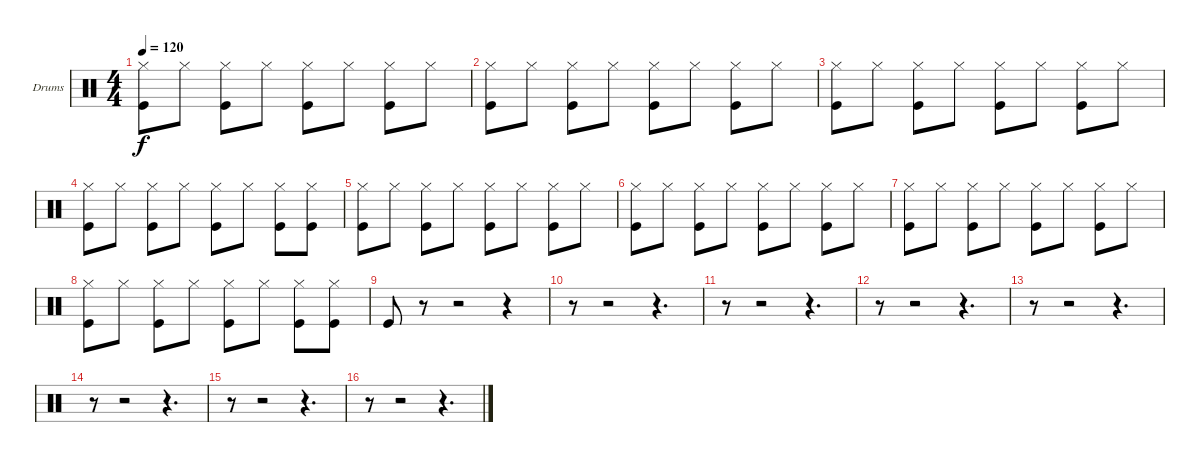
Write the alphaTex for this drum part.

\bracketExtendMode groupsimilarinstruments
\firstSystemTrackNameOrientation horizontal
\otherSystemsTrackNameOrientation horizontal
\track ("Ударные" "Drums") {instrument percussion}
\staff {score}
\articulation defaults
\ts (4 4)
\tempo 120
\clef neutral
\ks c
("Hi-Hat (closed)" "Kick (hit)").8{dy f} "Hi-Hat (closed)".8 ("Hi-Hat (closed)" "Kick (hit)").8 "Hi-Hat (closed)".8 ("Hi-Hat (closed)" "Kick (hit)").8 "Hi-Hat (closed)".8 ("Hi-Hat (closed)" "Kick (hit)").8 "Hi-Hat (closed)".8 |
("Hi-Hat (closed)" "Kick (hit)").8 "Hi-Hat (closed)".8 ("Hi-Hat (closed)" "Kick (hit)").8 "Hi-Hat (closed)".8 ("Hi-Hat (closed)" "Kick (hit)").8 "Hi-Hat (closed)".8 ("Hi-Hat (closed)" "Kick (hit)").8 "Hi-Hat (closed)".8 |
("Hi-Hat (closed)" "Kick (hit)").8 "Hi-Hat (closed)".8 ("Hi-Hat (closed)" "Kick (hit)").8 "Hi-Hat (closed)".8 ("Hi-Hat (closed)" "Kick (hit)").8 "Hi-Hat (closed)".8 ("Hi-Hat (closed)" "Kick (hit)").8 "Hi-Hat (closed)".8 |
("Hi-Hat (closed)" "Kick (hit)").8 "Hi-Hat (closed)".8 ("Hi-Hat (closed)" "Kick (hit)").8 "Hi-Hat (closed)".8 ("Hi-Hat (closed)" "Kick (hit)").8 "Hi-Hat (closed)".8 ("Hi-Hat (closed)" "Kick (hit)").8 ("Hi-Hat (closed)" "Kick (hit)").8 |
("Hi-Hat (closed)" "Kick (hit)").8 "Hi-Hat (closed)".8 ("Hi-Hat (closed)" "Kick (hit)").8 "Hi-Hat (closed)".8 ("Hi-Hat (closed)" "Kick (hit)").8 "Hi-Hat (closed)".8 ("Hi-Hat (closed)" "Kick (hit)").8 "Hi-Hat (closed)".8 |
("Hi-Hat (closed)" "Kick (hit)").8 "Hi-Hat (closed)".8 ("Hi-Hat (closed)" "Kick (hit)").8 "Hi-Hat (closed)".8 ("Hi-Hat (closed)" "Kick (hit)").8 "Hi-Hat (closed)".8 ("Hi-Hat (closed)" "Kick (hit)").8 "Hi-Hat (closed)".8 |
("Hi-Hat (closed)" "Kick (hit)").8 "Hi-Hat (closed)".8 ("Hi-Hat (closed)" "Kick (hit)").8 "Hi-Hat (closed)".8 ("Hi-Hat (closed)" "Kick (hit)").8 "Hi-Hat (closed)".8 ("Hi-Hat (closed)" "Kick (hit)").8 "Hi-Hat (closed)".8 |
("Hi-Hat (closed)" "Kick (hit)").8 "Hi-Hat (closed)".8 ("Hi-Hat (closed)" "Kick (hit)").8 "Hi-Hat (closed)".8 ("Hi-Hat (closed)" "Kick (hit)").8 "Hi-Hat (closed)".8 ("Hi-Hat (closed)" "Kick (hit)").8 ("Hi-Hat (closed)" "Kick (hit)").8 |
"Kick (hit)".8 r.8 r.2 r.4 |
r.8 r.2 r.4{d} |
r.8 r.2 r.4{d} |
r.8 r.2 r.4{d} |
r.8 r.2 r.4{d} |
r.8 r.2 r.4{d} |
r.8 r.2 r.4{d} |
r.8 r.2 r.4{d}
